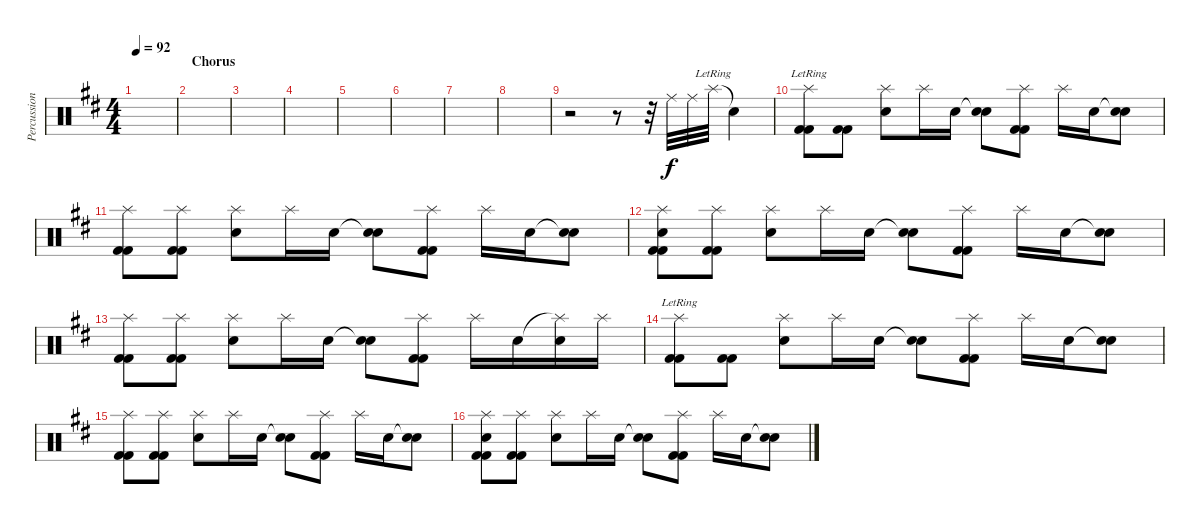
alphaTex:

\track ("Percussion" "Percussion") {instrument percussion}
\staff {score}
\articulation defaults
\ts (4 4)
\tempo 92
\clef neutral
\ks d
|
\section ("" "Chorus")
|
|
|
|
|
|
|
r.2 r.8 r.32 "Ride (middle)".32 "Ride (middle)".32 "Splash (hit)"{lr}.32 "Snare (hit)"{t}.4 |
("Splash (hit)"{lr} "Kick (hit) 2" "Kick (hit) 2").8 ("Kick (hit) 2" "Kick (hit) 2").8 ("Splash (hit)" "Electric Snare (hit)").8 "Splash (hit)".16 "Electric Snare (hit)".16 ("Snare (hit)"{t} "Electric Snare (hit)").8 ("Splash (hit)" "Kick (hit) 2" "Kick (hit) 2").8 "Splash (hit)".16 "Electric Snare (hit)".16 ("Snare (hit)"{t} "Electric Snare (hit)").8 |
("Splash (hit)" "Kick (hit) 2" "Kick (hit) 2").8 ("Splash (hit)" "Kick (hit) 2" "Kick (hit) 2").8 ("Splash (hit)" "Electric Snare (hit)").8 "Splash (hit)".16 "Electric Snare (hit)".16 ("Snare (hit)"{t} "Electric Snare (hit)").8 ("Splash (hit)" "Kick (hit) 2" "Kick (hit) 2").8 "Splash (hit)".16 "Electric Snare (hit)".16 ("Snare (hit)"{t} "Electric Snare (hit)").8 |
("Splash (hit)" "Electric Snare (hit)" "Kick (hit) 2" "Kick (hit) 2").8 ("Splash (hit)" "Kick (hit) 2" "Kick (hit) 2").8 ("Splash (hit)" "Electric Snare (hit)").8 "Splash (hit)".16 "Electric Snare (hit)".16 ("Snare (hit)"{t} "Electric Snare (hit)").8 ("Splash (hit)" "Kick (hit) 2" "Kick (hit) 2").8 "Splash (hit)".16 "Electric Snare (hit)".16 ("Snare (hit)"{t} "Electric Snare (hit)").8 |
("Splash (hit)" "Kick (hit) 2" "Kick (hit) 2").8 ("Splash (hit)" "Kick (hit) 2" "Kick (hit) 2").8 ("Splash (hit)" "Electric Snare (hit)").8 "Splash (hit)".16 "Electric Snare (hit)".16 ("Snare (hit)"{t} "Electric Snare (hit)").8 ("Splash (hit)" "Kick (hit) 2" "Kick (hit) 2").8 "Splash (hit)".16 "Electric Snare (hit)".16 ("Splash (hit)"{t} "Electric Snare (hit)").16 "Splash (hit)".16 |
("Splash (hit)"{lr} "Kick (hit) 2" "Kick (hit) 2").8 ("Kick (hit) 2" "Kick (hit) 2").8 ("Splash (hit)" "Electric Snare (hit)").8 "Splash (hit)".16 "Electric Snare (hit)".16 ("Snare (hit)"{t} "Electric Snare (hit)").8 ("Splash (hit)" "Kick (hit) 2" "Kick (hit) 2").8 "Splash (hit)".16 "Electric Snare (hit)".16 ("Snare (hit)"{t} "Electric Snare (hit)").8 |
("Splash (hit)" "Kick (hit) 2" "Kick (hit) 2").8 ("Splash (hit)" "Kick (hit) 2" "Kick (hit) 2").8 ("Splash (hit)" "Electric Snare (hit)").8 "Splash (hit)".16 "Electric Snare (hit)".16 ("Snare (hit)"{t} "Electric Snare (hit)").8 ("Splash (hit)" "Kick (hit) 2" "Kick (hit) 2").8 "Splash (hit)".16 "Electric Snare (hit)".16 ("Snare (hit)"{t} "Electric Snare (hit)").8 |
("Splash (hit)" "Electric Snare (hit)" "Kick (hit) 2" "Kick (hit) 2").8 ("Splash (hit)" "Kick (hit) 2" "Kick (hit) 2").8 ("Splash (hit)" "Electric Snare (hit)").8 "Splash (hit)".16 "Electric Snare (hit)".16 ("Snare (hit)"{t} "Electric Snare (hit)").8 ("Splash (hit)" "Kick (hit) 2" "Kick (hit) 2").8 "Splash (hit)".16 "Electric Snare (hit)".16 ("Snare (hit)"{t} "Electric Snare (hit)").8
